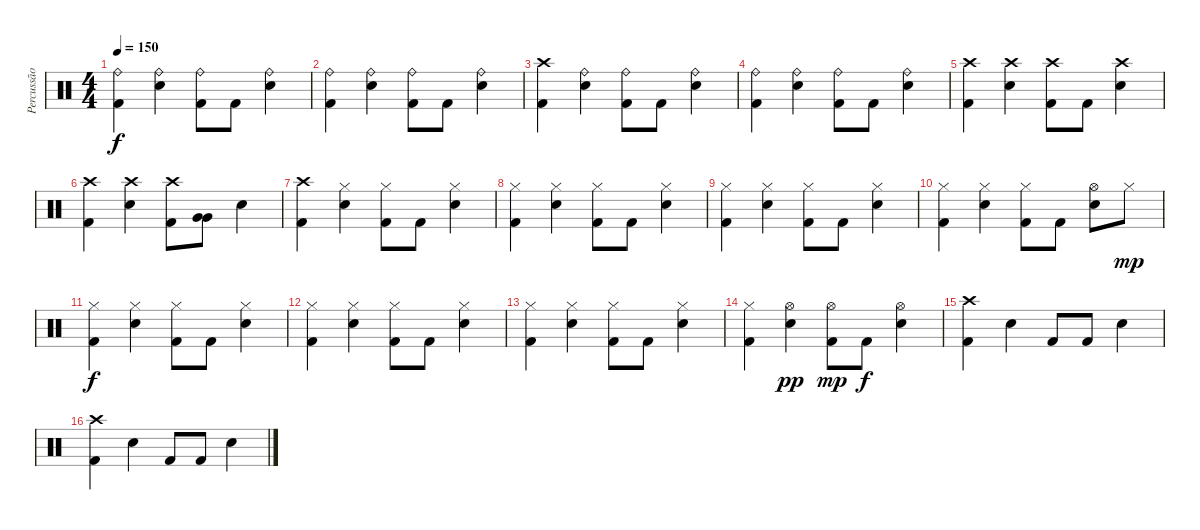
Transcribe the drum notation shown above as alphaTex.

\track ("Percussão" "Percussão") {instrument percussion}
\staff {score}
\articulation defaults
\ts (4 4)
\tempo 150
\clef neutral
\ks c
("Ride (bell)" "Kick (hit) 2").4{dy f} ("Ride (bell)" "Electric Snare (hit)").4 ("Ride (bell)" "Kick (hit) 2").8 "Kick (hit) 2".8 ("Ride (bell)" "Electric Snare (hit)").4 |
("Ride (bell)" "Kick (hit) 2").4 ("Ride (bell)" "Electric Snare (hit)").4 ("Ride (bell)" "Kick (hit) 2").8 "Kick (hit) 2".8 ("Ride (bell)" "Electric Snare (hit)").4 |
("Crash high (hit)" "Kick (hit) 2").4 ("Ride (bell)" "Electric Snare (hit)").4 ("Ride (bell)" "Kick (hit) 2").8 "Kick (hit) 2".8 ("Ride (bell)" "Electric Snare (hit)").4 |
("Ride (bell)" "Kick (hit) 2").4 ("Ride (bell)" "Electric Snare (hit)").4 ("Ride (bell)" "Kick (hit) 2").8 "Kick (hit) 2".8 ("Ride (bell)" "Electric Snare (hit)").4 |
("Crash high (hit)" "Kick (hit) 2").4 ("Crash high (hit)" "Electric Snare (hit)").4 ("Crash high (hit)" "Kick (hit) 2").8 "Kick (hit) 2".8 ("Crash high (hit)" "Electric Snare (hit)").4 |
("Crash high (hit)" "Kick (hit) 2").4 ("Crash high (hit)" "Electric Snare (hit)").4 ("Crash high (hit)" "Kick (hit) 2").8 ("Very Low Tom (hit)" "Very Low Tom (hit)").8 "Electric Snare (hit)".4 |
("Crash high (hit)" "Kick (hit) 2").4 ("Hi-Hat (closed)" "Electric Snare (hit)").4 ("Hi-Hat (closed)" "Kick (hit) 2").8 "Kick (hit) 2".8 ("Hi-Hat (closed)" "Electric Snare (hit)").4 |
("Hi-Hat (closed)" "Kick (hit) 2").4 ("Hi-Hat (closed)" "Electric Snare (hit)").4 ("Hi-Hat (closed)" "Kick (hit) 2").8 "Kick (hit) 2".8 ("Hi-Hat (closed)" "Electric Snare (hit)").4 |
("Hi-Hat (closed)" "Kick (hit) 2").4 ("Hi-Hat (closed)" "Electric Snare (hit)").4 ("Hi-Hat (closed)" "Kick (hit) 2").8 "Kick (hit) 2".8 ("Hi-Hat (closed)" "Electric Snare (hit)").4 |
("Hi-Hat (closed)" "Kick (hit) 2").4 ("Hi-Hat (closed)" "Electric Snare (hit)").4 ("Hi-Hat (closed)" "Kick (hit) 2").8 "Kick (hit) 2".8 ("Hi-Hat (open)" "Electric Snare (hit)").8 "Hi-Hat (closed)".8{dy mp} |
("Hi-Hat (closed)" "Kick (hit) 2").4{dy f} ("Hi-Hat (closed)" "Electric Snare (hit)").4 ("Hi-Hat (closed)" "Kick (hit) 2").8 "Kick (hit) 2".8 ("Hi-Hat (closed)" "Electric Snare (hit)").4 |
("Hi-Hat (closed)" "Kick (hit) 2").4 ("Hi-Hat (closed)" "Electric Snare (hit)").4 ("Hi-Hat (closed)" "Kick (hit) 2").8 "Kick (hit) 2".8 ("Hi-Hat (closed)" "Electric Snare (hit)").4 |
("Hi-Hat (closed)" "Kick (hit) 2").4 ("Hi-Hat (closed)" "Electric Snare (hit)").4 ("Hi-Hat (closed)" "Kick (hit) 2").8 "Kick (hit) 2".8 ("Hi-Hat (closed)" "Electric Snare (hit)").4 |
("Hi-Hat (closed)" "Kick (hit) 2").4 ("Hi-Hat (open)" "Electric Snare (hit)").4{dy pp} ("Hi-Hat (open)" "Kick (hit) 2").8{dy mp} "Kick (hit) 2".8{dy f} ("Hi-Hat (open)" "Electric Snare (hit)").4 |
("Crash high (hit)" "Kick (hit) 2").4 "Electric Snare (hit)".4 "Kick (hit) 2".8 "Kick (hit) 2".8 "Electric Snare (hit)".4 |
("Crash high (hit)" "Kick (hit) 2").4 "Electric Snare (hit)".4 "Kick (hit) 2".8 "Kick (hit) 2".8 "Electric Snare (hit)".4
